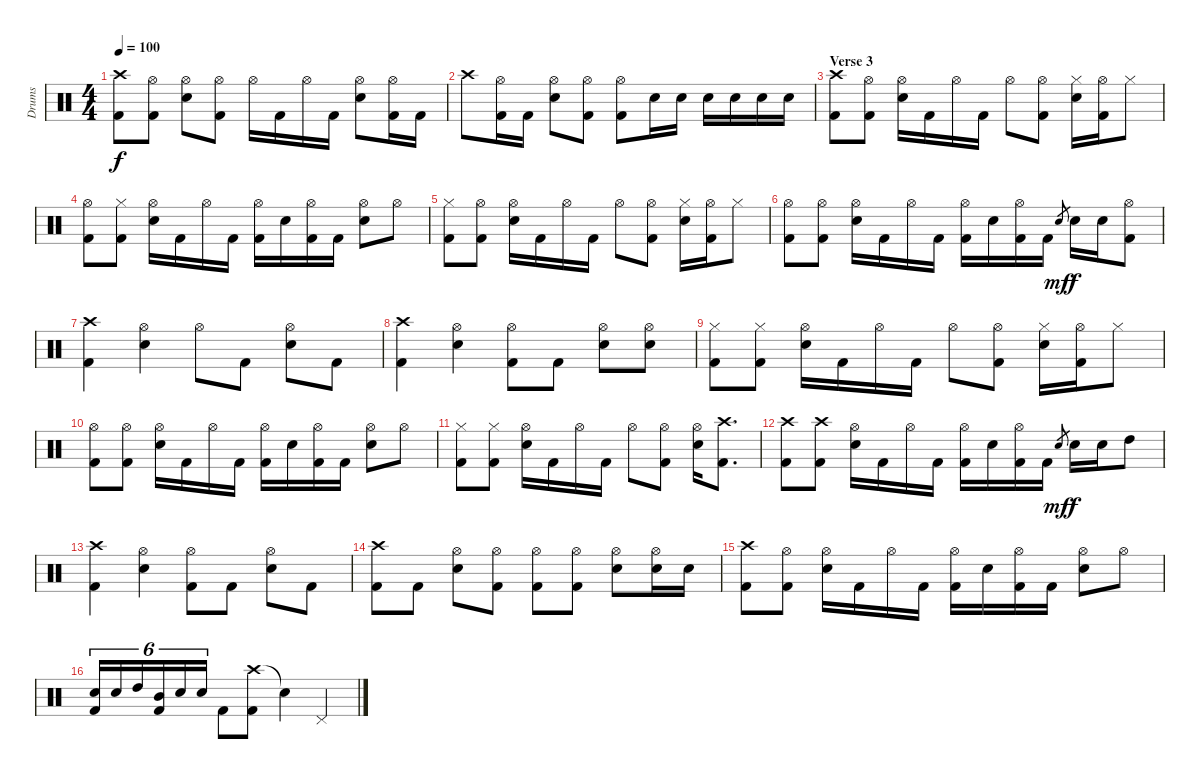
\track ("Drums" "Drums") {instrument percussion}
\staff {score}
\articulation defaults
\ts (4 4)
\tempo 100
\clef neutral
\ks c
("Crash high (hit)" "Kick (hit) 2").8{dy f} ("Hi-Hat (open)" "Kick (hit) 2").8 ("Hi-Hat (open)" "Electric Snare (hit)").8 ("Hi-Hat (open)" "Kick (hit) 2").8 "Hi-Hat (open)".16 "Kick (hit) 2".16 "Hi-Hat (open)".16 "Kick (hit) 2".16 ("Hi-Hat (open)" "Electric Snare (hit)").8 ("Hi-Hat (open)" "Kick (hit) 2").16 "Kick (hit) 2".16 |
"Crash high (hit)".8 ("Hi-Hat (open)" "Kick (hit) 2").16 "Kick (hit) 2".16 ("Hi-Hat (open)" "Electric Snare (hit)").8 ("Hi-Hat (open)" "Kick (hit) 2").8 ("Hi-Hat (open)" "Kick (hit) 2").8 "Electric Snare (hit)".16 "Electric Snare (hit)".16 "Electric Snare (hit)".16 "Electric Snare (hit)".16 "Electric Snare (hit)".16 "Electric Snare (hit)".16 |
\section ("" "Verse 3")
("Crash high (hit)" "Kick (hit) 2").8 ("Hi-Hat (open)" "Kick (hit) 2").8 ("Hi-Hat (open)" "Electric Snare (hit)").16 "Kick (hit) 2".16 "Hi-Hat (open)".16 "Kick (hit) 2".16 "Hi-Hat (open)".8 ("Hi-Hat (open)" "Kick (hit) 2").8 ("Hi-Hat (closed)" "Electric Snare (hit)").16 ("Hi-Hat (open)" "Kick (hit) 2").16 "Hi-Hat (closed)".8 |
("Hi-Hat (open)" "Kick (hit) 2").8 ("Hi-Hat (closed)" "Kick (hit) 2").8 ("Hi-Hat (open)" "Electric Snare (hit)").16 "Kick (hit) 2".16 "Hi-Hat (open)".16 "Kick (hit) 2".16 ("Hi-Hat (open)" "Kick (hit) 2").16 "Electric Snare (hit)".16 ("Hi-Hat (open)" "Kick (hit) 2").16 "Kick (hit) 2".16 ("Hi-Hat (open)" "Electric Snare (hit)").8 "Hi-Hat (open)".8 |
("Hi-Hat (closed)" "Kick (hit) 2").8 ("Hi-Hat (open)" "Kick (hit) 2").8 ("Hi-Hat (open)" "Electric Snare (hit)").16 "Kick (hit) 2".16 "Hi-Hat (open)".16 "Kick (hit) 2".16 "Hi-Hat (open)".8 ("Hi-Hat (open)" "Kick (hit) 2").8 ("Hi-Hat (closed)" "Electric Snare (hit)").16 ("Hi-Hat (open)" "Kick (hit) 2").16 "Hi-Hat (closed)".8 |
("Hi-Hat (open)" "Kick (hit) 2").8 ("Hi-Hat (open)" "Kick (hit) 2").8 ("Hi-Hat (open)" "Electric Snare (hit)").16 "Kick (hit) 2".16 "Hi-Hat (open)".16 "Kick (hit) 2".16 ("Hi-Hat (open)" "Kick (hit) 2").16 "Electric Snare (hit)".16 ("Hi-Hat (open)" "Kick (hit) 2").16 "Kick (hit) 2".16 "Electric Snare (hit)".8{gr dy mf} "Electric Snare (hit)".16{dy f} "Electric Snare (hit)".16 ("Hi-Hat (open)" "Kick (hit) 2").8 |
("Crash high (hit)" "Kick (hit) 2").4 ("Hi-Hat (open)" "Electric Snare (hit)").4 "Hi-Hat (open)".8 "Kick (hit) 2".8 ("Hi-Hat (open)" "Electric Snare (hit)").8 "Kick (hit) 2".8 |
("Crash high (hit)" "Kick (hit) 2").4 ("Hi-Hat (open)" "Electric Snare (hit)").4 ("Hi-Hat (open)" "Kick (hit) 2").8 "Kick (hit) 2".8 ("Hi-Hat (open)" "Electric Snare (hit)").8 ("Hi-Hat (open)" "Electric Snare (hit)").8 |
("Hi-Hat (closed)" "Kick (hit) 2").8 ("Hi-Hat (closed)" "Kick (hit) 2").8 ("Hi-Hat (open)" "Electric Snare (hit)").16 "Kick (hit) 2".16 "Hi-Hat (open)".16 "Kick (hit) 2".16 "Hi-Hat (open)".8 ("Hi-Hat (open)" "Kick (hit) 2").8 ("Hi-Hat (closed)" "Electric Snare (hit)").16 ("Hi-Hat (open)" "Kick (hit) 2").16 "Hi-Hat (closed)".8 |
("Hi-Hat (open)" "Kick (hit) 2").8 ("Hi-Hat (open)" "Kick (hit) 2").8 ("Hi-Hat (open)" "Electric Snare (hit)").16 "Kick (hit) 2".16 "Hi-Hat (open)".16 "Kick (hit) 2".16 ("Hi-Hat (open)" "Kick (hit) 2").16 "Electric Snare (hit)".16 ("Hi-Hat (open)" "Kick (hit) 2").16 "Kick (hit) 2".16 ("Hi-Hat (open)" "Electric Snare (hit)").8 "Hi-Hat (open)".8 |
("Hi-Hat (closed)" "Kick (hit) 2").8 ("Hi-Hat (closed)" "Kick (hit) 2").8 ("Hi-Hat (open)" "Electric Snare (hit)").16 "Kick (hit) 2".16 "Hi-Hat (open)".16 "Kick (hit) 2".16 "Hi-Hat (open)".8 ("Hi-Hat (open)" "Kick (hit) 2").8 ("Hi-Hat (open)" "Electric Snare (hit)").16 ("Crash high (hit)" "Kick (hit) 2").8{d} |
("Crash high (hit)" "Kick (hit) 2").8 ("Crash high (hit)" "Kick (hit) 2").8 ("Hi-Hat (open)" "Electric Snare (hit)").16 "Kick (hit) 2".16 "Hi-Hat (open)".16 "Kick (hit) 2".16 ("Hi-Hat (open)" "Kick (hit) 2").16 "Electric Snare (hit)".16 ("Hi-Hat (open)" "Kick (hit) 2").16 "Kick (hit) 2".16 "Electric Snare (hit)".8{gr dy mf} "Electric Snare (hit)".16{dy f} "Electric Snare (hit)".16 "High Tom (hit)".8 |
("Crash high (hit)" "Kick (hit) 2").4 ("Hi-Hat (open)" "Electric Snare (hit)").4 ("Hi-Hat (open)" "Kick (hit) 2").8 "Kick (hit) 2".8 ("Hi-Hat (open)" "Electric Snare (hit)").8 "Kick (hit) 2".8 |
("Crash high (hit)" "Kick (hit) 2").8 "Kick (hit) 2".8 ("Hi-Hat (open)" "Electric Snare (hit)").8 ("Hi-Hat (open)" "Kick (hit) 2").8 ("Hi-Hat (open)" "Kick (hit) 2").8 ("Hi-Hat (open)" "Kick (hit) 2").8 ("Hi-Hat (open)" "Electric Snare (hit)").8 ("Hi-Hat (open)" "Electric Snare (hit)").16 "Electric Snare (hit)".16 |
("Crash high (hit)" "Kick (hit) 2").8 ("Hi-Hat (open)" "Kick (hit) 2").8 ("Hi-Hat (open)" "Electric Snare (hit)").16 "Kick (hit) 2".16 "Hi-Hat (open)".16 "Kick (hit) 2".16 ("Hi-Hat (open)" "Kick (hit) 2").16 "Electric Snare (hit)".16 ("Hi-Hat (open)" "Kick (hit) 2").16 "Kick (hit) 2".16 ("Hi-Hat (open)" "Electric Snare (hit)").8 "Hi-Hat (open)".8 |
("Electric Snare (hit)" "Kick (hit) 2").16{tu (6 4)} "Electric Snare (hit)".16{tu (6 4)} "High Tom (hit)".16{tu (6 4)} ("Mid Tom (hit)" "Kick (hit) 2").16{tu (6 4)} "Electric Snare (hit)".16{tu (6 4)} "Electric Snare (hit)".16{tu (6 4)} "Kick (hit) 2".8 ("Crash high (hit)" "Kick (hit) 2").8 "Snare (hit)"{t}.4 "Pedal Hi-Hat (hit)".4
